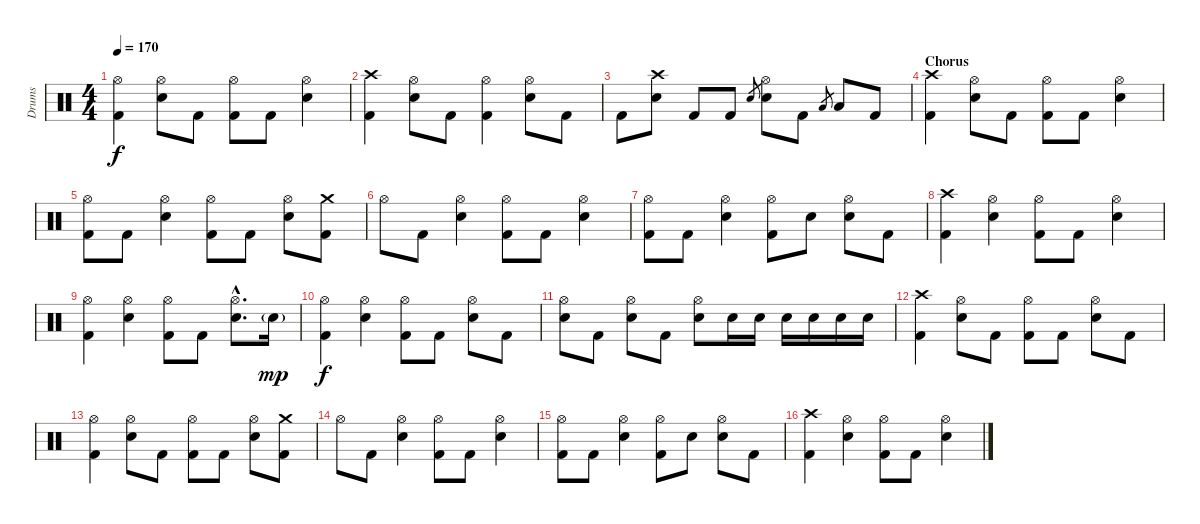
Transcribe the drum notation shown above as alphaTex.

\track ("Drums" "Drums") {instrument percussion}
\staff {score}
\articulation defaults
\ts (4 4)
\tempo 170
\clef neutral
\ks c
("Hi-Hat (open)" "Kick (hit) 2").4{dy f} ("Hi-Hat (open)" "Electric Snare (hit)").8 "Kick (hit) 2".8 ("Hi-Hat (open)" "Kick (hit) 2").8 "Kick (hit) 2".8 ("Hi-Hat (open)" "Electric Snare (hit)").4 |
("Crash high (hit)" "Kick (hit) 2").4 ("Hi-Hat (open)" "Electric Snare (hit)").8 "Kick (hit) 2".8 ("Hi-Hat (open)" "Kick (hit) 2").4 ("Hi-Hat (open)" "Electric Snare (hit)").8 "Kick (hit) 2".8 |
"Kick (hit) 2".8 ("Crash high (hit)" "Electric Snare (hit)").8 "Kick (hit) 2".8 "Kick (hit) 2".8 "Electric Snare (hit)".8{gr} ("Hi-Hat (open)" "Electric Snare (hit)").8 "Kick (hit) 2".8 "Low Tom (hit)".8{gr} "Low Tom (hit)".8 "Kick (hit) 2".8 |
\section ("" "Chorus")
("Crash high (hit)" "Kick (hit) 2").4 ("Hi-Hat (open)" "Electric Snare (hit)").8 "Kick (hit) 2".8 ("Hi-Hat (open)" "Kick (hit) 2").8 "Kick (hit) 2".8 ("Hi-Hat (open)" "Electric Snare (hit)").4 |
("Hi-Hat (open)" "Kick (hit) 2").8 "Kick (hit) 2".8 ("Hi-Hat (open)" "Electric Snare (hit)").4 ("Hi-Hat (open)" "Kick (hit) 2").8 "Kick (hit) 2".8 ("Hi-Hat (open)" "Electric Snare (hit)").8 ("Crash medium (hit)" "Kick (hit) 2").8 |
"Hi-Hat (open)".8 "Kick (hit) 2".8 ("Hi-Hat (open)" "Electric Snare (hit)").4 ("Hi-Hat (open)" "Kick (hit) 2").8 "Kick (hit) 2".8 ("Hi-Hat (open)" "Electric Snare (hit)").4 |
("Hi-Hat (open)" "Kick (hit) 2").8 "Kick (hit) 2".8 ("Hi-Hat (open)" "Electric Snare (hit)").4 ("Hi-Hat (open)" "Kick (hit) 2").8 "Electric Snare (hit)".8 ("Hi-Hat (open)" "Electric Snare (hit)").8 "Kick (hit) 2".8 |
("Crash high (hit)" "Kick (hit) 2").4 ("Hi-Hat (open)" "Electric Snare (hit)").4 ("Hi-Hat (open)" "Kick (hit) 2").8 "Kick (hit) 2".8 ("Hi-Hat (open)" "Electric Snare (hit)").4 |
("Hi-Hat (open)" "Kick (hit) 2").4 ("Hi-Hat (open)" "Electric Snare (hit)").4 ("Hi-Hat (open)" "Kick (hit) 2").8 "Kick (hit) 2".8 ("Hi-Hat (open)"{hac} "Electric Snare (hit)"{hac}).8{d} "Electric Snare (hit)"{g}.16{dy mp} |
("Hi-Hat (open)" "Kick (hit) 2").4{dy f} ("Hi-Hat (open)" "Electric Snare (hit)").4 ("Hi-Hat (open)" "Kick (hit) 2").8 "Kick (hit) 2".8 ("Hi-Hat (open)" "Electric Snare (hit)").8 "Kick (hit) 2".8 |
("Hi-Hat (open)" "Electric Snare (hit)").8 "Kick (hit) 2".8 ("Hi-Hat (open)" "Electric Snare (hit)").8 "Kick (hit) 2".8 ("Hi-Hat (open)" "Electric Snare (hit)").8 "Electric Snare (hit)".16 "Electric Snare (hit)".16 "Electric Snare (hit)".16 "Electric Snare (hit)".16 "Electric Snare (hit)".16 "Electric Snare (hit)".16 |
("Crash high (hit)" "Kick (hit) 2").4 ("Hi-Hat (open)" "Electric Snare (hit)").8 "Kick (hit) 2".8 ("Hi-Hat (open)" "Kick (hit) 2").8 "Kick (hit) 2".8 ("Hi-Hat (open)" "Electric Snare (hit)").8 "Kick (hit) 2".8 |
("Hi-Hat (open)" "Kick (hit) 2").4 ("Hi-Hat (open)" "Electric Snare (hit)").8 "Kick (hit) 2".8 ("Hi-Hat (open)" "Kick (hit) 2").8 "Kick (hit) 2".8 ("Hi-Hat (open)" "Electric Snare (hit)").8 ("Crash medium (hit)" "Kick (hit) 2").8 |
"Hi-Hat (open)".8 "Kick (hit) 2".8 ("Hi-Hat (open)" "Electric Snare (hit)").4 ("Hi-Hat (open)" "Kick (hit) 2").8 "Kick (hit) 2".8 ("Hi-Hat (open)" "Electric Snare (hit)").4 |
("Hi-Hat (open)" "Kick (hit) 2").8 "Kick (hit) 2".8 ("Hi-Hat (open)" "Electric Snare (hit)").4 ("Hi-Hat (open)" "Kick (hit) 2").8 "Electric Snare (hit)".8 ("Hi-Hat (open)" "Electric Snare (hit)").8 "Kick (hit) 2".8 |
("Crash high (hit)" "Kick (hit) 2").4 ("Hi-Hat (open)" "Electric Snare (hit)").4 ("Hi-Hat (open)" "Kick (hit) 2").8 "Kick (hit) 2".8 ("Hi-Hat (open)" "Electric Snare (hit)").4
